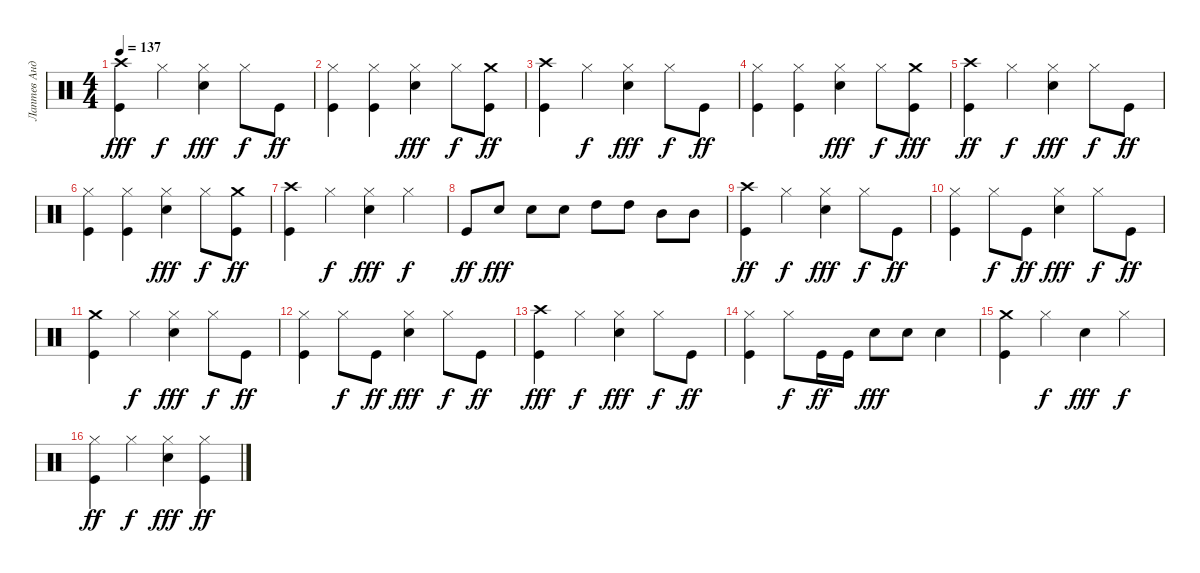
\track ("Лаптев Андрей" "Лаптев Анд") {instrument percussion}
\staff {score}
\articulation defaults
\ts (4 4)
\tempo 137
\clef neutral
\ks c
("Kick (hit)" "Crash high (hit)").4{dy fff} "Hi-Hat (closed)".4{dy f} ("Electric Snare (hit)" "Hi-Hat (closed)").4{dy fff} "Hi-Hat (closed)".8{dy f} "Kick (hit)".8{dy ff} |
("Kick (hit)" "Hi-Hat (closed)").4 ("Kick (hit)" "Hi-Hat (closed)").4 ("Electric Snare (hit)" "Hi-Hat (closed)").4{dy fff} "Hi-Hat (closed)".8{dy f} ("Crash medium (hit)" "Kick (hit)").8{dy ff} |
("Crash high (hit)" "Kick (hit)").4 "Hi-Hat (closed)".4{dy f} ("Electric Snare (hit)" "Hi-Hat (closed)").4{dy fff} "Hi-Hat (closed)".8{dy f} "Kick (hit)".8{dy ff} |
("Kick (hit)" "Hi-Hat (closed)").4 ("Kick (hit)" "Hi-Hat (closed)").4 ("Electric Snare (hit)" "Hi-Hat (closed)").4{dy fff} "Hi-Hat (closed)".8{dy f} ("Kick (hit)" "Crash medium (hit)").8{dy fff} |
("Crash high (hit)" "Kick (hit)").4{dy ff} "Hi-Hat (closed)".4{dy f} ("Electric Snare (hit)" "Hi-Hat (closed)").4{dy fff} "Hi-Hat (closed)".8{dy f} "Kick (hit)".8{dy ff} |
("Kick (hit)" "Hi-Hat (closed)").4 ("Kick (hit)" "Hi-Hat (closed)").4 ("Electric Snare (hit)" "Hi-Hat (closed)").4{dy fff} "Hi-Hat (closed)".8{dy f} ("Crash medium (hit)" "Kick (hit)").8{dy ff} |
("Crash high (hit)" "Kick (hit)").4 "Hi-Hat (closed)".4{dy f} ("Electric Snare (hit)" "Hi-Hat (closed)").4{dy fff} "Hi-Hat (closed)".4{dy f} |
"Kick (hit)".8{dy ff} "Electric Snare (hit)".8{dy fff} "Electric Snare (hit)".8 "Electric Snare (hit)".8 "High Tom (hit)".8 "High Tom (hit)".8 "Mid Tom (hit)".8 "Mid Tom (hit)".8 |
("Crash high (hit)" "Kick (hit)").4{dy ff} "Hi-Hat (closed)".4{dy f} ("Electric Snare (hit)" "Hi-Hat (closed)").4{dy fff} "Hi-Hat (closed)".8{dy f} "Kick (hit)".8{dy ff} |
("Kick (hit)" "Hi-Hat (closed)").4 "Hi-Hat (closed)".8{dy f} "Kick (hit)".8{dy ff} ("Electric Snare (hit)" "Hi-Hat (closed)").4{dy fff} "Hi-Hat (closed)".8{dy f} "Kick (hit)".8{dy ff} |
("Crash medium (hit)" "Kick (hit)").4 "Hi-Hat (closed)".4{dy f} ("Electric Snare (hit)" "Hi-Hat (closed)").4{dy fff} "Hi-Hat (closed)".8{dy f} "Kick (hit)".8{dy ff} |
("Kick (hit)" "Hi-Hat (closed)").4 "Hi-Hat (closed)".8{dy f} "Kick (hit)".8{dy ff} ("Electric Snare (hit)" "Hi-Hat (closed)").4{dy fff} "Hi-Hat (closed)".8{dy f} "Kick (hit)".8{dy ff} |
("Kick (hit)" "Crash high (hit)").4{dy fff} "Hi-Hat (closed)".4{dy f} ("Electric Snare (hit)" "Hi-Hat (closed)").4{dy fff} "Hi-Hat (closed)".8{dy f} "Kick (hit)".8{dy ff} |
("Kick (hit)" "Hi-Hat (closed)").4 "Hi-Hat (closed)".8{dy f} "Kick (hit)".16{dy ff} "Kick (hit)".16 "Electric Snare (hit)".8{dy fff} "Electric Snare (hit)".8 "Electric Snare (hit)".4 |
("Kick (hit)" "Crash medium (hit)").4 "Hi-Hat (closed)".4{dy f} "Electric Snare (hit)".4{dy fff} "Hi-Hat (closed)".4{dy f} |
("Kick (hit)" "Hi-Hat (closed)").4{dy ff} "Hi-Hat (closed)".4{dy f} ("Electric Snare (hit)" "Hi-Hat (closed)").4{dy fff} ("Kick (hit)" "Hi-Hat (closed)").4{dy ff}
